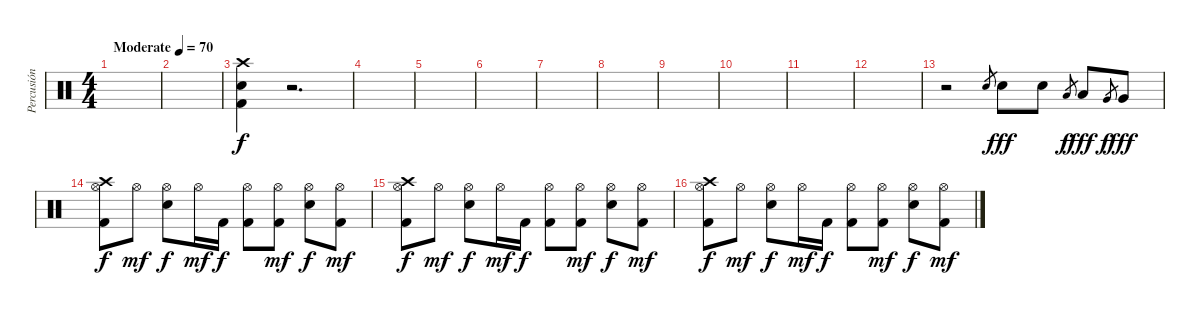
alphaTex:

\track ("Percusión" "Percusión") {instrument percussion}
\staff {score}
\articulation defaults
\ts (4 4)
\tempo (70 "Moderate")
\clef neutral
\ks c
|
|
("Kick (hit) 2" "Snare (hit) 2" "Crash high (hit)").4 r.2{d} |
|
|
|
|
|
|
|
|
|
r.2 "Snare (hit) 2".8{gr} "Snare (hit) 2".8{dy fff} "Snare (hit) 2".8 "Low Floor Tom (hit)".8{gr dy f} "Low Floor Tom (hit)".8{dy fff} "Very Low Tom (hit)".8{gr dy f} "Very Low Tom (hit)".8{dy fff} |
("Hi-Hat (open)" "Crash high (hit)" "Kick (hit) 2").8{dy f} "Hi-Hat (open)".8{dy mf} ("Hi-Hat (open)" "Snare (hit) 2").8{dy f} "Hi-Hat (open)".16{dy mf} "Kick (hit) 2".16{dy f} ("Hi-Hat (open)" "Kick (hit) 2").8 ("Hi-Hat (open)" "Kick (hit) 2").8{dy mf} ("Hi-Hat (open)" "Snare (hit) 2").8{dy f} ("Hi-Hat (open)" "Kick (hit) 2").8{dy mf} |
("Hi-Hat (open)" "Crash high (hit)" "Kick (hit) 2").8{dy f} "Hi-Hat (open)".8{dy mf} ("Hi-Hat (open)" "Snare (hit) 2").8{dy f} "Hi-Hat (open)".16{dy mf} "Kick (hit) 2".16{dy f} ("Hi-Hat (open)" "Kick (hit) 2").8 ("Hi-Hat (open)" "Kick (hit) 2").8{dy mf} ("Hi-Hat (open)" "Snare (hit) 2").8{dy f} ("Hi-Hat (open)" "Kick (hit) 2").8{dy mf} |
("Hi-Hat (open)" "Crash high (hit)" "Kick (hit) 2").8{dy f} "Hi-Hat (open)".8{dy mf} ("Hi-Hat (open)" "Snare (hit) 2").8{dy f} "Hi-Hat (open)".16{dy mf} "Kick (hit) 2".16{dy f} ("Hi-Hat (open)" "Kick (hit) 2").8 ("Hi-Hat (open)" "Kick (hit) 2").8{dy mf} ("Hi-Hat (open)" "Snare (hit) 2").8{dy f} ("Hi-Hat (open)" "Kick (hit) 2").8{dy mf}
